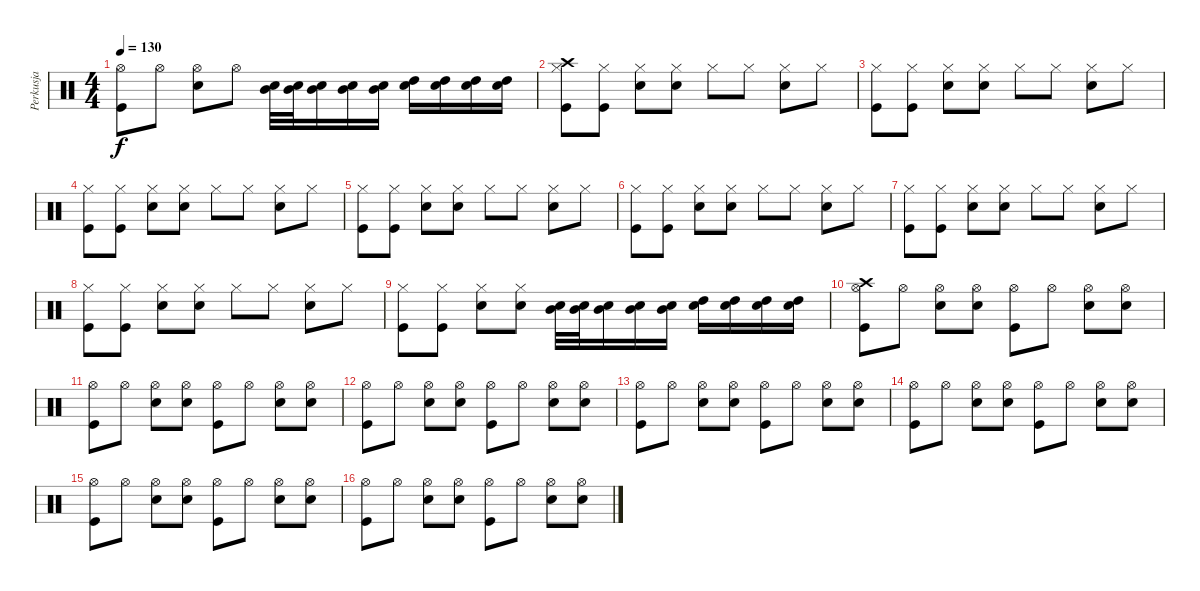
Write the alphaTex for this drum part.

\track ("Perkusja" "Perkusja") {instrument percussion}
\staff {score}
\articulation defaults
\ts (4 4)
\tempo 130
\clef neutral
\ks c
("Hi-Hat (open)" "Kick (hit)").8{dy f} "Hi-Hat (open)".8 ("Hi-Hat (open)" "Electric Snare (hit)").8 "Hi-Hat (open)".8 ("Mid Tom (hit)" "Electric Snare (hit)").32 ("Mid Tom (hit)" "Electric Snare (hit)").32 ("Mid Tom (hit)" "Electric Snare (hit)").16 ("Mid Tom (hit)" "Electric Snare (hit)").16 ("Mid Tom (hit)" "Electric Snare (hit)").16 ("High Tom (hit)" "Electric Snare (hit)").16 ("High Tom (hit)" "Electric Snare (hit)").16 ("High Tom (hit)" "Electric Snare (hit)").16 ("High Tom (hit)" "Electric Snare (hit)").16 |
("Hi-Hat (closed)" "Crash high (hit)" "Kick (hit)").8 ("Hi-Hat (closed)" "Kick (hit)").8 ("Hi-Hat (closed)" "Electric Snare (hit)").8 ("Hi-Hat (closed)" "Electric Snare (hit)").8 "Hi-Hat (closed)".8 "Hi-Hat (closed)".8 ("Hi-Hat (closed)" "Electric Snare (hit)").8 "Hi-Hat (closed)".8 |
("Hi-Hat (closed)" "Kick (hit)").8 ("Hi-Hat (closed)" "Kick (hit)").8 ("Hi-Hat (closed)" "Electric Snare (hit)").8 ("Hi-Hat (closed)" "Electric Snare (hit)").8 "Hi-Hat (closed)".8 "Hi-Hat (closed)".8 ("Hi-Hat (closed)" "Electric Snare (hit)").8 "Hi-Hat (closed)".8 |
("Hi-Hat (closed)" "Kick (hit)").8 ("Hi-Hat (closed)" "Kick (hit)").8 ("Hi-Hat (closed)" "Electric Snare (hit)").8 ("Hi-Hat (closed)" "Electric Snare (hit)").8 "Hi-Hat (closed)".8 "Hi-Hat (closed)".8 ("Hi-Hat (closed)" "Electric Snare (hit)").8 "Hi-Hat (closed)".8 |
("Hi-Hat (closed)" "Kick (hit)").8 ("Hi-Hat (closed)" "Kick (hit)").8 ("Hi-Hat (closed)" "Electric Snare (hit)").8 ("Hi-Hat (closed)" "Electric Snare (hit)").8 "Hi-Hat (closed)".8 "Hi-Hat (closed)".8 ("Hi-Hat (closed)" "Electric Snare (hit)").8 "Hi-Hat (closed)".8 |
("Hi-Hat (closed)" "Kick (hit)").8 ("Hi-Hat (closed)" "Kick (hit)").8 ("Hi-Hat (closed)" "Electric Snare (hit)").8 ("Hi-Hat (closed)" "Electric Snare (hit)").8 "Hi-Hat (closed)".8 "Hi-Hat (closed)".8 ("Hi-Hat (closed)" "Electric Snare (hit)").8 "Hi-Hat (closed)".8 |
("Hi-Hat (closed)" "Kick (hit)").8 ("Hi-Hat (closed)" "Kick (hit)").8 ("Hi-Hat (closed)" "Electric Snare (hit)").8 ("Hi-Hat (closed)" "Electric Snare (hit)").8 "Hi-Hat (closed)".8 "Hi-Hat (closed)".8 ("Hi-Hat (closed)" "Electric Snare (hit)").8 "Hi-Hat (closed)".8 |
("Hi-Hat (closed)" "Kick (hit)").8 ("Hi-Hat (closed)" "Kick (hit)").8 ("Hi-Hat (closed)" "Electric Snare (hit)").8 ("Hi-Hat (closed)" "Electric Snare (hit)").8 "Hi-Hat (closed)".8 "Hi-Hat (closed)".8 ("Hi-Hat (closed)" "Electric Snare (hit)").8 "Hi-Hat (closed)".8 |
("Hi-Hat (closed)" "Kick (hit)").8 ("Hi-Hat (closed)" "Kick (hit)").8 ("Hi-Hat (closed)" "Electric Snare (hit)").8 ("Hi-Hat (closed)" "Electric Snare (hit)").8 ("Mid Tom (hit)" "Electric Snare (hit)").32 ("Mid Tom (hit)" "Electric Snare (hit)").32 ("Mid Tom (hit)" "Electric Snare (hit)").16 ("Mid Tom (hit)" "Electric Snare (hit)").16 ("Mid Tom (hit)" "Electric Snare (hit)").16 ("High Tom (hit)" "Electric Snare (hit)").16 ("High Tom (hit)" "Electric Snare (hit)").16 ("High Tom (hit)" "Electric Snare (hit)").16 ("High Tom (hit)" "Electric Snare (hit)").16 |
("Hi-Hat (open)" "Crash high (hit)" "Kick (hit)").8 "Hi-Hat (open)".8 ("Hi-Hat (open)" "Electric Snare (hit)").8 ("Hi-Hat (open)" "Electric Snare (hit)").8 ("Hi-Hat (open)" "Kick (hit)").8 "Hi-Hat (open)".8 ("Hi-Hat (open)" "Electric Snare (hit)").8 ("Hi-Hat (open)" "Electric Snare (hit)").8 |
("Hi-Hat (open)" "Kick (hit)").8 "Hi-Hat (open)".8 ("Hi-Hat (open)" "Electric Snare (hit)").8 ("Hi-Hat (open)" "Electric Snare (hit)").8 ("Hi-Hat (open)" "Kick (hit)").8 "Hi-Hat (open)".8 ("Hi-Hat (open)" "Electric Snare (hit)").8 ("Hi-Hat (open)" "Electric Snare (hit)").8 |
("Hi-Hat (open)" "Kick (hit)").8 "Hi-Hat (open)".8 ("Hi-Hat (open)" "Electric Snare (hit)").8 ("Hi-Hat (open)" "Electric Snare (hit)").8 ("Hi-Hat (open)" "Kick (hit)").8 "Hi-Hat (open)".8 ("Hi-Hat (open)" "Electric Snare (hit)").8 ("Hi-Hat (open)" "Electric Snare (hit)").8 |
("Hi-Hat (open)" "Kick (hit)").8 "Hi-Hat (open)".8 ("Hi-Hat (open)" "Electric Snare (hit)").8 ("Hi-Hat (open)" "Electric Snare (hit)").8 ("Hi-Hat (open)" "Kick (hit)").8 "Hi-Hat (open)".8 ("Hi-Hat (open)" "Electric Snare (hit)").8 ("Hi-Hat (open)" "Electric Snare (hit)").8 |
("Hi-Hat (open)" "Kick (hit)").8 "Hi-Hat (open)".8 ("Hi-Hat (open)" "Electric Snare (hit)").8 ("Hi-Hat (open)" "Electric Snare (hit)").8 ("Hi-Hat (open)" "Kick (hit)").8 "Hi-Hat (open)".8 ("Hi-Hat (open)" "Electric Snare (hit)").8 ("Hi-Hat (open)" "Electric Snare (hit)").8 |
("Hi-Hat (open)" "Kick (hit)").8 "Hi-Hat (open)".8 ("Hi-Hat (open)" "Electric Snare (hit)").8 ("Hi-Hat (open)" "Electric Snare (hit)").8 ("Hi-Hat (open)" "Kick (hit)").8 "Hi-Hat (open)".8 ("Hi-Hat (open)" "Electric Snare (hit)").8 ("Hi-Hat (open)" "Electric Snare (hit)").8 |
("Hi-Hat (open)" "Kick (hit)").8 "Hi-Hat (open)".8 ("Hi-Hat (open)" "Electric Snare (hit)").8 ("Hi-Hat (open)" "Electric Snare (hit)").8 ("Hi-Hat (open)" "Kick (hit)").8 "Hi-Hat (open)".8 ("Hi-Hat (open)" "Electric Snare (hit)").8 ("Hi-Hat (open)" "Electric Snare (hit)").8
